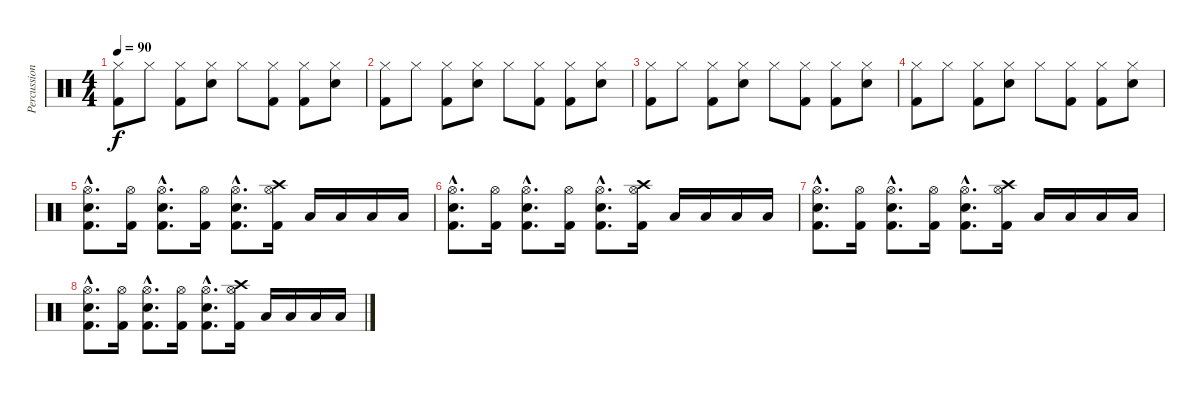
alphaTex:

\track ("Percussion" "Percussion") {instrument percussion}
\staff {score}
\articulation defaults
\ts (4 4)
\tempo 90
\clef neutral
\ks c
("Hi-Hat (closed)" "Kick (hit) 2").8{dy f} "Hi-Hat (closed)".8 ("Hi-Hat (closed)" "Kick (hit) 2").8 ("Hi-Hat (closed)" "Electric Snare (hit)").8 "Hi-Hat (closed)".8 ("Hi-Hat (closed)" "Kick (hit) 2").8 ("Hi-Hat (closed)" "Kick (hit) 2").8 ("Hi-Hat (closed)" "Electric Snare (hit)").8 |
("Hi-Hat (closed)" "Kick (hit) 2").8 "Hi-Hat (closed)".8 ("Hi-Hat (closed)" "Kick (hit) 2").8 ("Hi-Hat (closed)" "Electric Snare (hit)").8 "Hi-Hat (closed)".8 ("Hi-Hat (closed)" "Kick (hit) 2").8 ("Hi-Hat (closed)" "Kick (hit) 2").8 ("Hi-Hat (closed)" "Electric Snare (hit)").8 |
("Hi-Hat (closed)" "Kick (hit) 2").8 "Hi-Hat (closed)".8 ("Hi-Hat (closed)" "Kick (hit) 2").8 ("Hi-Hat (closed)" "Electric Snare (hit)").8 "Hi-Hat (closed)".8 ("Hi-Hat (closed)" "Kick (hit) 2").8 ("Hi-Hat (closed)" "Kick (hit) 2").8 ("Hi-Hat (closed)" "Electric Snare (hit)").8 |
("Hi-Hat (closed)" "Kick (hit) 2").8 "Hi-Hat (closed)".8 ("Hi-Hat (closed)" "Kick (hit) 2").8 ("Hi-Hat (closed)" "Electric Snare (hit)").8 "Hi-Hat (closed)".8 ("Hi-Hat (closed)" "Kick (hit) 2").8 ("Hi-Hat (closed)" "Kick (hit) 2").8 ("Hi-Hat (closed)" "Electric Snare (hit)").8 |
("Hi-Hat (open)"{hac} "Electric Snare (hit)"{hac} "Kick (hit) 2"{hac}).8{d} ("Hi-Hat (open)" "Kick (hit) 2").16 ("Hi-Hat (open)"{hac} "Electric Snare (hit)"{hac} "Kick (hit) 2"{hac}).8{d} ("Hi-Hat (open)" "Kick (hit) 2").16 ("Hi-Hat (open)"{hac} "Electric Snare (hit)"{hac} "Kick (hit) 2"{hac}).8{d} ("Hi-Hat (open)" "Crash high (hit)" "Kick (hit) 2").16 "Low Tom (hit)".16 "Low Tom (hit)".16 "Low Tom (hit)".16 "Low Tom (hit)".16 |
("Hi-Hat (open)"{hac} "Electric Snare (hit)"{hac} "Kick (hit) 2"{hac}).8{d} ("Hi-Hat (open)" "Kick (hit) 2").16 ("Hi-Hat (open)"{hac} "Electric Snare (hit)"{hac} "Kick (hit) 2"{hac}).8{d} ("Hi-Hat (open)" "Kick (hit) 2").16 ("Hi-Hat (open)"{hac} "Electric Snare (hit)"{hac} "Kick (hit) 2"{hac}).8{d} ("Hi-Hat (open)" "Crash high (hit)" "Kick (hit) 2").16 "Low Tom (hit)".16 "Low Tom (hit)".16 "Low Tom (hit)".16 "Low Tom (hit)".16 |
("Hi-Hat (open)"{hac} "Electric Snare (hit)"{hac} "Kick (hit) 2"{hac}).8{d} ("Hi-Hat (open)" "Kick (hit) 2").16 ("Hi-Hat (open)"{hac} "Electric Snare (hit)"{hac} "Kick (hit) 2"{hac}).8{d} ("Hi-Hat (open)" "Kick (hit) 2").16 ("Hi-Hat (open)"{hac} "Electric Snare (hit)"{hac} "Kick (hit) 2"{hac}).8{d} ("Hi-Hat (open)" "Crash high (hit)" "Kick (hit) 2").16 "Low Tom (hit)".16 "Low Tom (hit)".16 "Low Tom (hit)".16 "Low Tom (hit)".16 |
("Hi-Hat (open)"{hac} "Electric Snare (hit)"{hac} "Kick (hit) 2"{hac}).8{d} ("Hi-Hat (open)" "Kick (hit) 2").16 ("Hi-Hat (open)"{hac} "Electric Snare (hit)"{hac} "Kick (hit) 2"{hac}).8{d} ("Hi-Hat (open)" "Kick (hit) 2").16 ("Hi-Hat (open)"{hac} "Electric Snare (hit)"{hac} "Kick (hit) 2"{hac}).8{d} ("Hi-Hat (open)" "Crash high (hit)" "Kick (hit) 2").16 "Low Tom (hit)".16 "Low Tom (hit)".16 "Low Tom (hit)".16 "Low Tom (hit)".16
